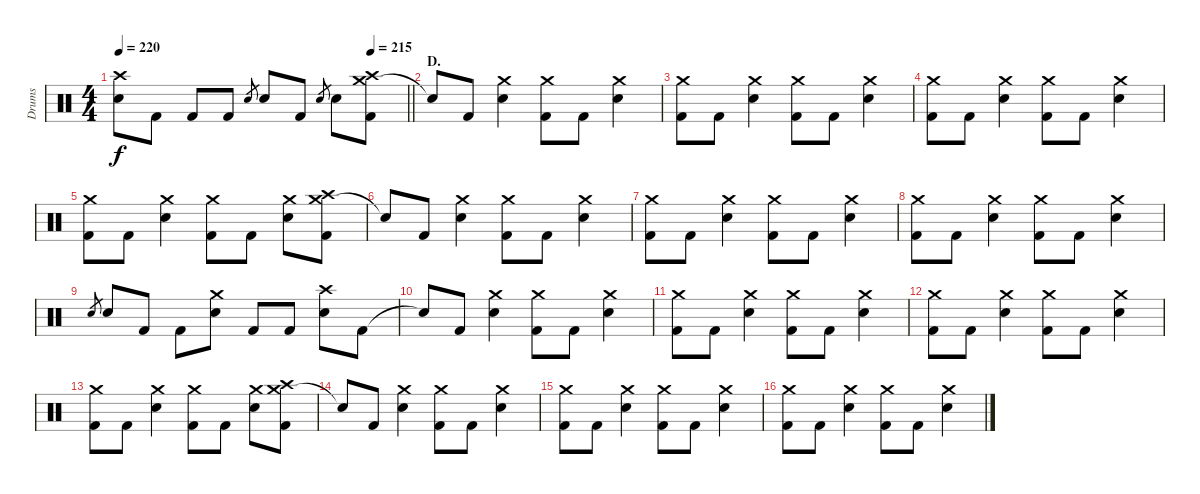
\track ("Drums" "Drums") {instrument percussion}
\staff {score}
\articulation defaults
\ts (4 4)
\tempo 220
\tempo (215 0.875)
\clef neutral
\barLineRight lightlight
\ks c
("Crash high (hit)" "Electric Snare (hit)").8{dy f} "Kick (hit) 2".8 "Kick (hit) 2".8 "Kick (hit) 2".8 "Electric Snare (hit)".8{gr} "Electric Snare (hit)".8 "Kick (hit) 2".8 "Electric Snare (hit)".8{gr} "Electric Snare (hit)".8 ("Crash medium (hit)" "Crash high (hit)" "Kick (hit) 2").8 |
\section ("" "D.")
"Snare (hit)"{t}.8 "Kick (hit) 2".8 ("Crash medium (hit)" "Electric Snare (hit)").4 ("Crash medium (hit)" "Kick (hit) 2").8 "Kick (hit) 2".8 ("Crash medium (hit)" "Electric Snare (hit)").4 |
("Crash medium (hit)" "Kick (hit) 2").8 "Kick (hit) 2".8 ("Crash medium (hit)" "Electric Snare (hit)").4 ("Crash medium (hit)" "Kick (hit) 2").8 "Kick (hit) 2".8 ("Crash medium (hit)" "Electric Snare (hit)").4 |
("Crash medium (hit)" "Kick (hit) 2").8 "Kick (hit) 2".8 ("Crash medium (hit)" "Electric Snare (hit)").4 ("Crash medium (hit)" "Kick (hit) 2").8 "Kick (hit) 2".8 ("Crash medium (hit)" "Electric Snare (hit)").4 |
("Crash medium (hit)" "Kick (hit) 2").8 "Kick (hit) 2".8 ("Crash medium (hit)" "Electric Snare (hit)").4 ("Crash medium (hit)" "Kick (hit) 2").8 "Kick (hit) 2".8 ("Crash medium (hit)" "Electric Snare (hit)").8 ("Crash medium (hit)" "Crash high (hit)" "Kick (hit) 2").8 |
"Snare (hit)"{t}.8 "Kick (hit) 2".8 ("Crash medium (hit)" "Electric Snare (hit)").4 ("Crash medium (hit)" "Kick (hit) 2").8 "Kick (hit) 2".8 ("Crash medium (hit)" "Electric Snare (hit)").4 |
("Crash medium (hit)" "Kick (hit) 2").8 "Kick (hit) 2".8 ("Crash medium (hit)" "Electric Snare (hit)").4 ("Crash medium (hit)" "Kick (hit) 2").8 "Kick (hit) 2".8 ("Crash medium (hit)" "Electric Snare (hit)").4 |
("Crash medium (hit)" "Kick (hit) 2").8 "Kick (hit) 2".8 ("Crash medium (hit)" "Electric Snare (hit)").4 ("Crash medium (hit)" "Kick (hit) 2").8 "Kick (hit) 2".8 ("Crash medium (hit)" "Electric Snare (hit)").4 |
"Electric Snare (hit)".8{gr} "Electric Snare (hit)".8 "Kick (hit) 2".8 "Kick (hit) 2".8 ("Crash medium (hit)" "Electric Snare (hit)").8 "Kick (hit) 2".8 "Kick (hit) 2".8 ("Crash high (hit)" "Electric Snare (hit)").8 "Kick (hit) 2".8 |
"Snare (hit)"{t}.8 "Kick (hit) 2".8 ("Crash medium (hit)" "Electric Snare (hit)").4 ("Crash medium (hit)" "Kick (hit) 2").8 "Kick (hit) 2".8 ("Crash medium (hit)" "Electric Snare (hit)").4 |
("Crash medium (hit)" "Kick (hit) 2").8 "Kick (hit) 2".8 ("Crash medium (hit)" "Electric Snare (hit)").4 ("Crash medium (hit)" "Kick (hit) 2").8 "Kick (hit) 2".8 ("Crash medium (hit)" "Electric Snare (hit)").4 |
("Crash medium (hit)" "Kick (hit) 2").8 "Kick (hit) 2".8 ("Crash medium (hit)" "Electric Snare (hit)").4 ("Crash medium (hit)" "Kick (hit) 2").8 "Kick (hit) 2".8 ("Crash medium (hit)" "Electric Snare (hit)").4 |
("Crash medium (hit)" "Kick (hit) 2").8 "Kick (hit) 2".8 ("Crash medium (hit)" "Electric Snare (hit)").4 ("Crash medium (hit)" "Kick (hit) 2").8 "Kick (hit) 2".8 ("Crash medium (hit)" "Electric Snare (hit)").8 ("Crash medium (hit)" "Crash high (hit)" "Kick (hit) 2").8 |
"Snare (hit)"{t}.8 "Kick (hit) 2".8 ("Crash medium (hit)" "Electric Snare (hit)").4 ("Crash medium (hit)" "Kick (hit) 2").8 "Kick (hit) 2".8 ("Crash medium (hit)" "Electric Snare (hit)").4 |
("Crash medium (hit)" "Kick (hit) 2").8 "Kick (hit) 2".8 ("Crash medium (hit)" "Electric Snare (hit)").4 ("Crash medium (hit)" "Kick (hit) 2").8 "Kick (hit) 2".8 ("Crash medium (hit)" "Electric Snare (hit)").4 |
("Crash medium (hit)" "Kick (hit) 2").8 "Kick (hit) 2".8 ("Crash medium (hit)" "Electric Snare (hit)").4 ("Crash medium (hit)" "Kick (hit) 2").8 "Kick (hit) 2".8 ("Crash medium (hit)" "Electric Snare (hit)").4
